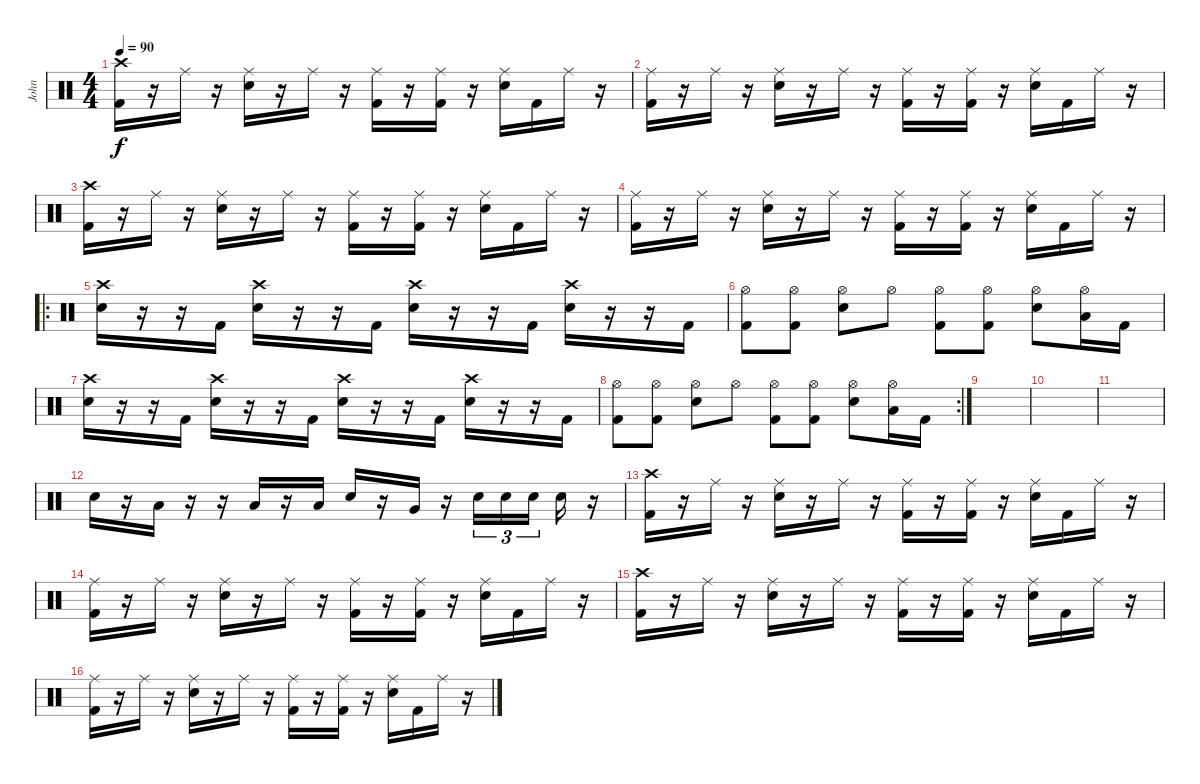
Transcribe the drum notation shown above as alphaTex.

\track ("John" "John") {instrument percussion}
\staff {score}
\articulation defaults
\ts (4 4)
\tempo 90
\clef neutral
\ks c
("Crash high (hit)" "Kick (hit) 2").16{dy f} r.16 "Ride (middle)".16 r.16 ("Ride (middle)" "Snare (hit) 2").16 r.16 "Ride (middle)".16 r.16 ("Ride (middle)" "Kick (hit) 2").16 r.16 ("Ride (middle)" "Kick (hit) 2").16 r.16 ("Ride (middle)" "Snare (hit) 2").16 "Kick (hit) 2".16 "Ride (middle)".16 r.16 |
("Ride (middle)" "Kick (hit) 2").16 r.16 "Ride (middle)".16 r.16 ("Ride (middle)" "Snare (hit) 2").16 r.16 "Ride (middle)".16 r.16 ("Ride (middle)" "Kick (hit) 2").16 r.16 ("Ride (middle)" "Kick (hit) 2").16 r.16 ("Ride (middle)" "Snare (hit) 2").16 "Kick (hit) 2".16 "Ride (middle)".16 r.16 |
("Crash high (hit)" "Kick (hit) 2").16 r.16 "Ride (middle)".16 r.16 ("Ride (middle)" "Snare (hit) 2").16 r.16 "Ride (middle)".16 r.16 ("Ride (middle)" "Kick (hit) 2").16 r.16 ("Ride (middle)" "Kick (hit) 2").16 r.16 ("Ride (middle)" "Snare (hit) 2").16 "Kick (hit) 2".16 "Ride (middle)".16 r.16 |
("Ride (middle)" "Kick (hit) 2").16 r.16 "Ride (middle)".16 r.16 ("Ride (middle)" "Snare (hit) 2").16 r.16 "Ride (middle)".16 r.16 ("Ride (middle)" "Kick (hit) 2").16 r.16 ("Ride (middle)" "Kick (hit) 2").16 r.16 ("Ride (middle)" "Snare (hit) 2").16 "Kick (hit) 2".16 "Ride (middle)".16 r.16 |
\ro
("Crash high (hit)" "Snare (hit) 2").16 r.16 r.16 "Kick (hit) 2".16 ("Crash high (hit)" "Snare (hit) 2").16 r.16 r.16 "Kick (hit) 2".16 ("Crash high (hit)" "Snare (hit) 2").16 r.16 r.16 "Kick (hit) 2".16 ("Crash high (hit)" "Snare (hit) 2").16 r.16 r.16 "Kick (hit) 2".16 |
("Hi-Hat (open)" "Kick (hit) 2").8 ("Hi-Hat (open)" "Kick (hit) 2").8 ("Hi-Hat (open)" "Snare (hit) 2").8 "Hi-Hat (open)".8 ("Hi-Hat (open)" "Kick (hit) 2").8 ("Hi-Hat (open)" "Kick (hit) 2").8 ("Hi-Hat (open)" "Snare (hit) 2").8 ("Hi-Hat (open)" "Low Tom (hit)").16 "Kick (hit) 2".16 |
("Crash high (hit)" "Snare (hit) 2").16 r.16 r.16 "Kick (hit) 2".16 ("Crash high (hit)" "Snare (hit) 2").16 r.16 r.16 "Kick (hit) 2".16 ("Crash high (hit)" "Snare (hit) 2").16 r.16 r.16 "Kick (hit) 2".16 ("Crash high (hit)" "Snare (hit) 2").16 r.16 r.16 "Kick (hit) 2".16 |
\rc 2
("Hi-Hat (open)" "Kick (hit) 2").8 ("Hi-Hat (open)" "Kick (hit) 2").8 ("Hi-Hat (open)" "Snare (hit) 2").8 "Hi-Hat (open)".8 ("Hi-Hat (open)" "Kick (hit) 2").8 ("Hi-Hat (open)" "Kick (hit) 2").8 ("Hi-Hat (open)" "Snare (hit) 2").8 ("Hi-Hat (open)" "Low Tom (hit)").16 "Kick (hit) 2".16 |
|
|
|
"Snare (hit) 2".16 r.16 "Low Tom (hit)".16 r.16 r.16 "Low Tom (hit)".16 r.16 "Low Tom (hit)".16 "Snare (hit) 2".16 r.16 "Very Low Tom (hit)".16 r.16 "Snare (hit) 2".16{tu (3 2)} "Snare (hit) 2".16{tu (3 2)} "Snare (hit) 2".16{tu (3 2) beam splitsecondary} "Snare (hit) 2".16 r.16 |
("Crash high (hit)" "Kick (hit) 2").16 r.16 "Ride (middle)".16 r.16 ("Ride (middle)" "Snare (hit) 2").16 r.16 "Ride (middle)".16 r.16 ("Ride (middle)" "Kick (hit) 2").16 r.16 ("Ride (middle)" "Kick (hit) 2").16 r.16 ("Ride (middle)" "Snare (hit) 2").16 "Kick (hit) 2".16 "Ride (middle)".16 r.16 |
("Ride (middle)" "Kick (hit) 2").16 r.16 "Ride (middle)".16 r.16 ("Ride (middle)" "Snare (hit) 2").16 r.16 "Ride (middle)".16 r.16 ("Ride (middle)" "Kick (hit) 2").16 r.16 ("Ride (middle)" "Kick (hit) 2").16 r.16 ("Ride (middle)" "Snare (hit) 2").16 "Kick (hit) 2".16 "Ride (middle)".16 r.16 |
("Crash high (hit)" "Kick (hit) 2").16 r.16 "Ride (middle)".16 r.16 ("Ride (middle)" "Snare (hit) 2").16 r.16 "Ride (middle)".16 r.16 ("Ride (middle)" "Kick (hit) 2").16 r.16 ("Ride (middle)" "Kick (hit) 2").16 r.16 ("Ride (middle)" "Snare (hit) 2").16 "Kick (hit) 2".16 "Ride (middle)".16 r.16 |
("Ride (middle)" "Kick (hit) 2").16 r.16 "Ride (middle)".16 r.16 ("Ride (middle)" "Snare (hit) 2").16 r.16 "Ride (middle)".16 r.16 ("Ride (middle)" "Kick (hit) 2").16 r.16 ("Ride (middle)" "Kick (hit) 2").16 r.16 ("Ride (middle)" "Snare (hit) 2").16 "Kick (hit) 2".16 "Ride (middle)".16 r.16
